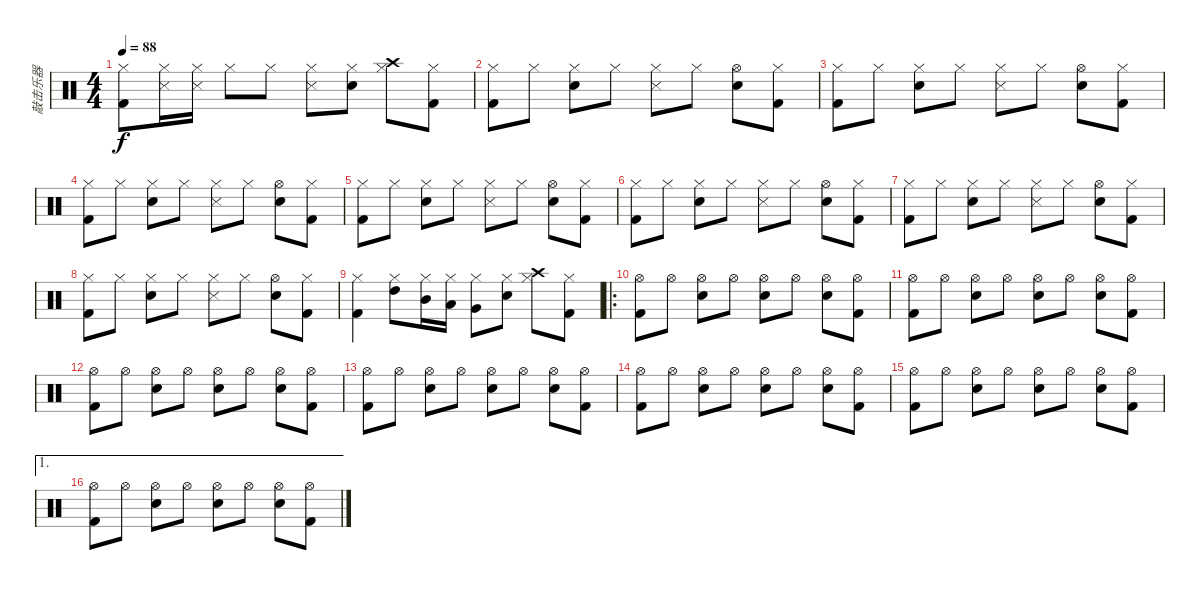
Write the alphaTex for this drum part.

\track ("敲击乐器" "敲击乐器") {instrument percussion}
\staff {score}
\articulation defaults
\ts (4 4)
\tempo 88
\clef neutral
\ks c
("Kick (hit) 2" "Hi-Hat (closed)").8{dy f} ("Snare (side stick) 3" "Hi-Hat (closed)").16 ("Snare (side stick) 3" "Hi-Hat (closed)").16 "Hi-Hat (closed)".8 "Hi-Hat (closed)".8 ("Snare (side stick) 3" "Hi-Hat (closed)").8 ("Snare (hit) 2" "Hi-Hat (closed)").8 ("Crash high (hit)" "Hi-Hat (closed)").8 ("Kick (hit) 2" "Hi-Hat (closed)").8 |
("Kick (hit) 2" "Hi-Hat (closed)").8 "Hi-Hat (closed)".8 ("Snare (hit) 2" "Hi-Hat (closed)").8 "Hi-Hat (closed)".8 ("Snare (side stick) 3" "Hi-Hat (closed)").8 "Hi-Hat (closed)".8 ("Snare (hit) 2" "Hi-Hat (open)").8 ("Kick (hit) 2" "Hi-Hat (closed)").8 |
("Kick (hit) 2" "Hi-Hat (closed)").8 "Hi-Hat (closed)".8 ("Snare (hit) 2" "Hi-Hat (closed)").8 "Hi-Hat (closed)".8 ("Snare (side stick) 3" "Hi-Hat (closed)").8 "Hi-Hat (closed)".8 ("Snare (hit) 2" "Hi-Hat (open)").8 ("Kick (hit) 2" "Hi-Hat (closed)").8 |
("Kick (hit) 2" "Hi-Hat (closed)").8 "Hi-Hat (closed)".8 ("Snare (hit) 2" "Hi-Hat (closed)").8 "Hi-Hat (closed)".8 ("Snare (side stick) 3" "Hi-Hat (closed)").8 "Hi-Hat (closed)".8 ("Snare (hit) 2" "Hi-Hat (open)").8 ("Kick (hit) 2" "Hi-Hat (closed)").8 |
("Kick (hit) 2" "Hi-Hat (closed)").8 "Hi-Hat (closed)".8 ("Snare (hit) 2" "Hi-Hat (closed)").8 "Hi-Hat (closed)".8 ("Snare (side stick) 3" "Hi-Hat (closed)").8 "Hi-Hat (closed)".8 ("Snare (hit) 2" "Hi-Hat (open)").8 ("Kick (hit) 2" "Hi-Hat (closed)").8 |
("Kick (hit) 2" "Hi-Hat (closed)").8 "Hi-Hat (closed)".8 ("Snare (hit) 2" "Hi-Hat (closed)").8 "Hi-Hat (closed)".8 ("Snare (side stick) 3" "Hi-Hat (closed)").8 "Hi-Hat (closed)".8 ("Snare (hit) 2" "Hi-Hat (open)").8 ("Kick (hit) 2" "Hi-Hat (closed)").8 |
("Kick (hit) 2" "Hi-Hat (closed)").8 "Hi-Hat (closed)".8 ("Snare (hit) 2" "Hi-Hat (closed)").8 "Hi-Hat (closed)".8 ("Snare (side stick) 3" "Hi-Hat (closed)").8 "Hi-Hat (closed)".8 ("Snare (hit) 2" "Hi-Hat (open)").8 ("Kick (hit) 2" "Hi-Hat (closed)").8 |
("Kick (hit) 2" "Hi-Hat (closed)").8 "Hi-Hat (closed)".8 ("Snare (hit) 2" "Hi-Hat (closed)").8 "Hi-Hat (closed)".8 ("Snare (side stick) 3" "Hi-Hat (closed)").8 "Hi-Hat (closed)".8 ("Snare (hit) 2" "Hi-Hat (open)").8 ("Kick (hit) 2" "Hi-Hat (closed)").8 |
("Kick (hit) 2" "Hi-Hat (closed)").4 ("High Tom (hit)" "Hi-Hat (closed)").8 ("Mid Tom (hit)" "Hi-Hat (closed)").16 ("Low Tom (hit)" "Hi-Hat (closed)").16 ("Very Low Tom (hit)" "Hi-Hat (closed)").8 ("Snare (hit) 2" "Hi-Hat (closed)").8 ("Crash high (hit)" "Hi-Hat (closed)").8 ("Kick (hit) 2" "Hi-Hat (closed)").8 |
\ro
("Kick (hit) 2" "Hi-Hat (open)").8 "Hi-Hat (open)".8 ("Hand Clap (hit)" "Hi-Hat (open)").8 "Hi-Hat (open)".8 ("Electric Snare (hit)" "Hi-Hat (open)").8 "Hi-Hat (open)".8 ("Hand Clap (hit)" "Hi-Hat (open)").8 ("Kick (hit) 2" "Hi-Hat (open)").8 |
("Kick (hit) 2" "Hi-Hat (open)").8 "Hi-Hat (open)".8 ("Hand Clap (hit)" "Hi-Hat (open)").8 "Hi-Hat (open)".8 ("Electric Snare (hit)" "Hi-Hat (open)").8 "Hi-Hat (open)".8 ("Hand Clap (hit)" "Hi-Hat (open)").8 ("Kick (hit) 2" "Hi-Hat (open)").8 |
("Kick (hit) 2" "Hi-Hat (open)").8 "Hi-Hat (open)".8 ("Hand Clap (hit)" "Hi-Hat (open)").8 "Hi-Hat (open)".8 ("Electric Snare (hit)" "Hi-Hat (open)").8 "Hi-Hat (open)".8 ("Hand Clap (hit)" "Hi-Hat (open)").8 ("Kick (hit) 2" "Hi-Hat (open)").8 |
("Kick (hit) 2" "Hi-Hat (open)").8 "Hi-Hat (open)".8 ("Hand Clap (hit)" "Hi-Hat (open)").8 "Hi-Hat (open)".8 ("Electric Snare (hit)" "Hi-Hat (open)").8 "Hi-Hat (open)".8 ("Hand Clap (hit)" "Hi-Hat (open)").8 ("Kick (hit) 2" "Hi-Hat (open)").8 |
("Kick (hit) 2" "Hi-Hat (open)").8 "Hi-Hat (open)".8 ("Hand Clap (hit)" "Hi-Hat (open)").8 "Hi-Hat (open)".8 ("Electric Snare (hit)" "Hi-Hat (open)").8 "Hi-Hat (open)".8 ("Hand Clap (hit)" "Hi-Hat (open)").8 ("Kick (hit) 2" "Hi-Hat (open)").8 |
("Kick (hit) 2" "Hi-Hat (open)").8 "Hi-Hat (open)".8 ("Hand Clap (hit)" "Hi-Hat (open)").8 "Hi-Hat (open)".8 ("Electric Snare (hit)" "Hi-Hat (open)").8 "Hi-Hat (open)".8 ("Hand Clap (hit)" "Hi-Hat (open)").8 ("Kick (hit) 2" "Hi-Hat (open)").8 |
\ae 1
("Kick (hit) 2" "Hi-Hat (open)").8 "Hi-Hat (open)".8 ("Hand Clap (hit)" "Hi-Hat (open)").8 "Hi-Hat (open)".8 ("Electric Snare (hit)" "Hi-Hat (open)").8 "Hi-Hat (open)".8 ("Hand Clap (hit)" "Hi-Hat (open)").8 ("Kick (hit) 2" "Hi-Hat (open)").8
